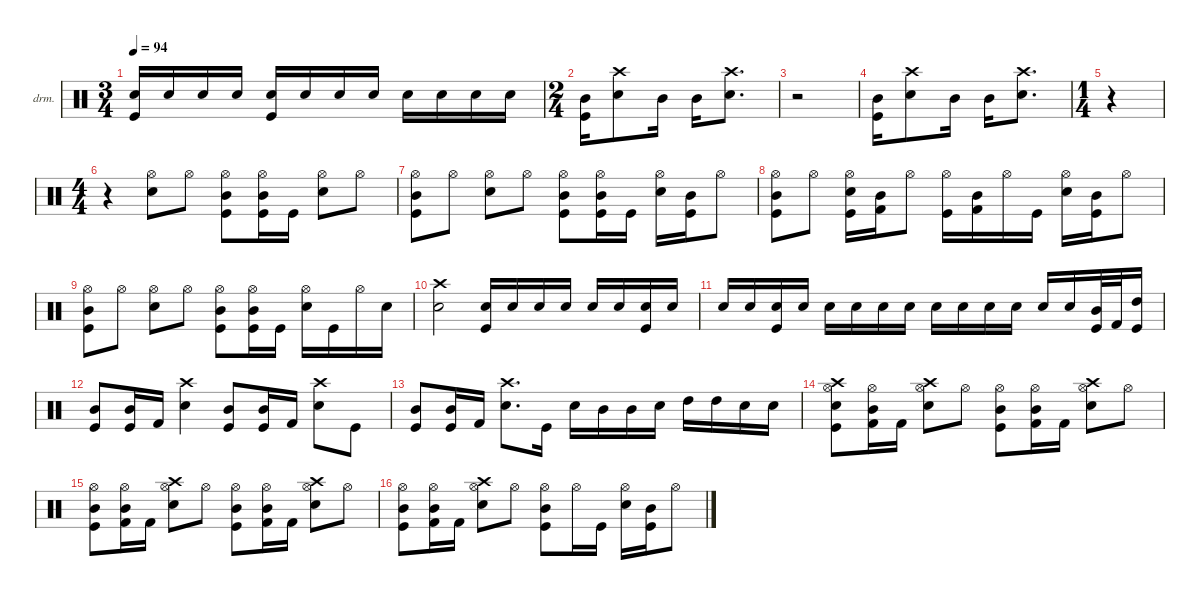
\defaultSystemsLayout 4
\hideDynamics
\bracketExtendMode nobrackets
\firstSystemTrackNameOrientation horizontal
\otherSystemsTrackNameOrientation horizontal
\track ("Lars Ulrich" "drm.") {instrument percussion}
\staff {score}
\articulation defaults
\voice
\ts (3 4)
\beaming (8 2 2 2)
\tempo 94
\clef neutral
\ks c
("Snare (hit) 2" "Kick (hit)").16{dy ff} "Snare (hit) 2".16 "Snare (hit) 2".16 "Snare (hit) 2".16 ("Snare (hit) 2" "Kick (hit)").16 "Snare (hit) 2".16 "Snare (hit) 2".16 "Snare (hit) 2".16 "Snare (hit) 2".16 "Snare (hit) 2".16 "Snare (hit) 2".16 "Snare (hit) 2".16 |
\ts (2 4)
\beaming (8 2 2)
("Mid Tom (hit)" "Kick (hit)").16 ("Crash high (hit)" "Snare (hit) 2").8{dy f} "Mid Tom (hit)".16{dy ff} "Mid Tom (hit)".16 ("Crash high (hit)" "Snare (hit) 2").8{d dy f} |
r.2 |
("Mid Tom (hit)" "Kick (hit)").16{dy fff} ("Crash high (hit)" "Snare (hit) 2").8{dy f} "Mid Tom (hit)".16{dy ff} "Mid Tom (hit)".16 ("Crash high (hit)" "Snare (hit) 2").8{d dy f} |
\ts (1 4)
\beaming (8 2)
r.4 |
\ts (4 4)
\beaming (8 2 2 2 2)
r.4 ("Hi-Hat (open)" "Snare (hit) 2").8 "Hi-Hat (open)".8 ("Hi-Hat (open)" "Mid Tom (hit)" "Kick (hit)").8 ("Hi-Hat (open)" "Mid Tom (hit)" "Kick (hit)").16 "Kick (hit)".16 ("Hi-Hat (open)" "Snare (hit) 2").8 "Hi-Hat (open)".8 |
("Hi-Hat (open)" "Mid Tom (hit)" "Kick (hit)").8 "Hi-Hat (open)".8 ("Hi-Hat (open)" "Snare (hit) 2").8 "Hi-Hat (open)".8 ("Hi-Hat (open)" "Mid Tom (hit)" "Kick (hit)").8 ("Hi-Hat (open)" "Mid Tom (hit)" "Kick (hit)").16 "Kick (hit)".16 ("Hi-Hat (open)" "Snare (hit) 2").16 ("Mid Tom (hit)" "Kick (hit)").16{dy ff} "Hi-Hat (open)".8{dy f} |
("Hi-Hat (open)" "Mid Tom (hit)" "Kick (hit)").8 "Hi-Hat (open)".8 ("Hi-Hat (open)" "Snare (hit) 2" "Kick (hit)").16 ("Mid Tom (hit)" "Kick (hit) 2").16{dy ff} "Hi-Hat (open)".8{dy f} ("Hi-Hat (open)" "Kick (hit)").16 ("Mid Tom (hit)" "Kick (hit) 2").16{dy ff} "Hi-Hat (open)".16{dy f} "Kick (hit)".16{dy ff} ("Hi-Hat (open)" "Snare (hit) 2").16{dy f} ("Mid Tom (hit)" "Kick (hit)").16{dy ff} "Hi-Hat (open)".8{dy f} |
("Hi-Hat (open)" "Mid Tom (hit)" "Kick (hit)").8 "Hi-Hat (open)".8 ("Hi-Hat (open)" "Snare (hit) 2").8 "Hi-Hat (open)".8 ("Hi-Hat (open)" "Mid Tom (hit)" "Kick (hit)").8 ("Hi-Hat (open)" "Mid Tom (hit)" "Kick (hit)").16 "Kick (hit)".16 ("Hi-Hat (open)" "Snare (hit) 2").16 "Kick (hit)".16 "Hi-Hat (open)".16 "Snare (hit) 2".16{dy ff} |
("Crash high (hit)" "Snare (hit) 2").2{dy f} ("Snare (hit) 2" "Kick (hit)").16{dy mf} "Snare (hit) 2".16 "Snare (hit) 2".16 "Snare (hit) 2".16 "Snare (hit) 2".16 "Snare (hit) 2".16 ("Snare (hit) 2" "Kick (hit)").16 "Snare (hit) 2".16 |
"Snare (hit) 2".16{dy f} "Snare (hit) 2".16 ("Snare (hit) 2" "Kick (hit)").16 "Snare (hit) 2".16 "Snare (hit) 2".16 "Snare (hit) 2".16 "Snare (hit) 2".16 "Snare (hit) 2".16 "Snare (hit) 2".16{dy ff} "Snare (hit) 2".16 "Snare (hit) 2".16 "Snare (hit) 2".16 "Snare (hit) 2".16 "Snare (hit) 2".16 ("Mid Tom (hit)" "Kick (hit)").32 "Kick (hit) 2".32{dy f} ("High Tom (hit)" "Kick (hit)").16{dy ff} |
("Mid Tom (hit)" "Kick (hit)").8 ("Mid Tom (hit)" "Kick (hit)").16 "Kick (hit) 2".16 ("Crash high (hit)" "Snare (hit) 2").4{dy f} ("Mid Tom (hit)" "Kick (hit)").8{dy ff} ("Mid Tom (hit)" "Kick (hit)").16 "Kick (hit) 2".16 ("Crash high (hit)" "Snare (hit) 2").8{dy f} "Kick (hit)".8{dy ff} |
("Mid Tom (hit)" "Kick (hit)").8 ("Mid Tom (hit)" "Kick (hit)").16 "Kick (hit) 2".16 ("Crash high (hit)" "Snare (hit) 2").8{d dy f} "Kick (hit)".16{dy ff} "Snare (hit) 2".16 "Mid Tom (hit)".16 "Mid Tom (hit)".16 "Snare (hit) 2".16 "High Tom (hit)".16 "High Tom (hit)".16 "Snare (hit) 2".16 "Snare (hit) 2".16 |
("Hi-Hat (open)" "Crash high (hit)" "Snare (hit) 2" "Kick (hit)").8{dy f} ("Hi-Hat (open)" "Mid Tom (hit)" "Kick (hit) 2").16 "Kick (hit) 2".16{dy ff} ("Hi-Hat (open)" "Crash high (hit)" "Snare (hit) 2").8{dy f} "Hi-Hat (open)".8 ("Hi-Hat (open)" "Mid Tom (hit)" "Kick (hit)").8 ("Hi-Hat (open)" "Mid Tom (hit)" "Kick (hit) 2").16 "Kick (hit) 2".16{dy ff} ("Hi-Hat (open)" "Crash high (hit)" "Snare (hit) 2").8{dy f} "Hi-Hat (open)".8 |
("Hi-Hat (open)" "Mid Tom (hit)" "Kick (hit)").8 ("Hi-Hat (open)" "Mid Tom (hit)" "Kick (hit) 2").16 "Kick (hit) 2".16{dy ff} ("Hi-Hat (open)" "Crash high (hit)" "Snare (hit) 2").8{dy f} "Hi-Hat (open)".8 ("Hi-Hat (open)" "Mid Tom (hit)" "Kick (hit)").8 ("Hi-Hat (open)" "Mid Tom (hit)" "Kick (hit) 2").16 "Kick (hit) 2".16{dy ff} ("Hi-Hat (open)" "Crash high (hit)" "Snare (hit) 2").8{dy f} "Hi-Hat (open)".8 |
("Hi-Hat (open)" "Mid Tom (hit)" "Kick (hit)").8 ("Hi-Hat (open)" "Mid Tom (hit)" "Kick (hit) 2").16 "Kick (hit) 2".16{dy ff} ("Hi-Hat (open)" "Crash high (hit)" "Snare (hit) 2").8{dy f} "Hi-Hat (open)".8 ("Hi-Hat (open)" "Mid Tom (hit)" "Kick (hit)").8 "Hi-Hat (open)".16 "Kick (hit)".16{dy ff} ("Hi-Hat (open)" "Snare (hit) 2").16{dy f} ("Mid Tom (hit)" "Kick (hit)").16{dy ff} "Hi-Hat (open)".8{dy f}
\voice
\clef neutral
\ottava regular
\simile none
\ks c
|
|
|
|
r.4{dy mf} |
|
|
|
|
|
|
|
|
|
|
